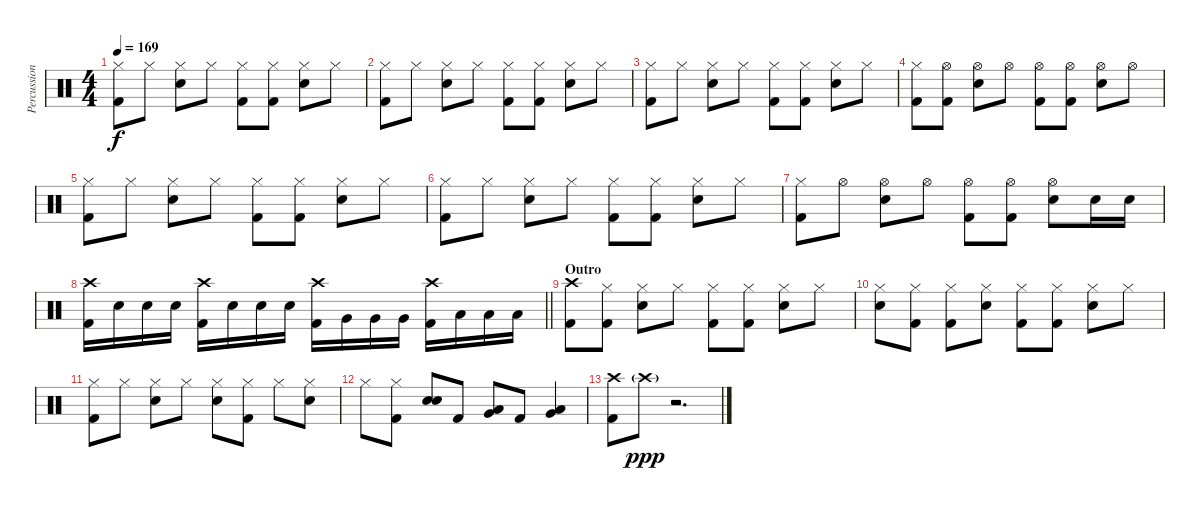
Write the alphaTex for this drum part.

\track ("Percussion" "Percussion") {instrument percussion}
\staff {score}
\articulation defaults
\ts (4 4)
\tempo 169
\clef neutral
\ks c
("Hi-Hat (closed)" "Kick (hit) 2").8{dy f} "Hi-Hat (closed)".8 ("Hi-Hat (closed)" "Electric Snare (hit)").8 "Hi-Hat (closed)".8 ("Hi-Hat (closed)" "Kick (hit) 2").8 ("Hi-Hat (closed)" "Kick (hit) 2").8 ("Hi-Hat (closed)" "Electric Snare (hit)").8 "Hi-Hat (closed)".8 |
("Hi-Hat (closed)" "Kick (hit) 2").8 "Hi-Hat (closed)".8 ("Hi-Hat (closed)" "Electric Snare (hit)").8 "Hi-Hat (closed)".8 ("Hi-Hat (closed)" "Kick (hit) 2").8 ("Hi-Hat (closed)" "Kick (hit) 2").8 ("Hi-Hat (closed)" "Electric Snare (hit)").8 "Hi-Hat (closed)".8 |
("Hi-Hat (closed)" "Kick (hit) 2").8 "Hi-Hat (closed)".8 ("Hi-Hat (closed)" "Electric Snare (hit)").8 "Hi-Hat (closed)".8 ("Hi-Hat (closed)" "Kick (hit) 2").8 ("Hi-Hat (closed)" "Kick (hit) 2").8 ("Hi-Hat (closed)" "Electric Snare (hit)").8 "Hi-Hat (closed)".8 |
("Hi-Hat (closed)" "Kick (hit) 2").8 ("Hi-Hat (open)" "Kick (hit) 2").8 ("Hi-Hat (open)" "Electric Snare (hit)").8 "Hi-Hat (open)".8 ("Hi-Hat (open)" "Kick (hit) 2").8 ("Hi-Hat (open)" "Kick (hit) 2").8 ("Hi-Hat (open)" "Electric Snare (hit)").8 "Hi-Hat (open)".8 |
("Hi-Hat (closed)" "Kick (hit) 2").8 "Hi-Hat (closed)".8 ("Hi-Hat (closed)" "Electric Snare (hit)").8 "Hi-Hat (closed)".8 ("Hi-Hat (closed)" "Kick (hit) 2").8 ("Hi-Hat (closed)" "Kick (hit) 2").8 ("Hi-Hat (closed)" "Electric Snare (hit)").8 "Hi-Hat (closed)".8 |
("Hi-Hat (closed)" "Kick (hit) 2").8 "Hi-Hat (closed)".8 ("Hi-Hat (closed)" "Electric Snare (hit)").8 "Hi-Hat (closed)".8 ("Hi-Hat (closed)" "Kick (hit) 2").8 ("Hi-Hat (closed)" "Kick (hit) 2").8 ("Hi-Hat (closed)" "Electric Snare (hit)").8 "Hi-Hat (closed)".8 |
("Hi-Hat (closed)" "Kick (hit) 2").8 "Hi-Hat (open)".8 ("Hi-Hat (open)" "Electric Snare (hit)").8 "Hi-Hat (open)".8 ("Hi-Hat (open)" "Kick (hit) 2").8 ("Hi-Hat (open)" "Kick (hit) 2").8 ("Hi-Hat (open)" "Electric Snare (hit)").8 "Electric Snare (hit)".16 "Electric Snare (hit)".16 |
\barLineRight lightlight
("Crash high (hit)" "Kick (hit) 2").16 "Electric Snare (hit)".16 "Electric Snare (hit)".16 "Electric Snare (hit)".16 ("Crash high (hit)" "Kick (hit) 2").16 "Electric Snare (hit)".16 "Electric Snare (hit)".16 "Electric Snare (hit)".16 ("Crash high (hit)" "Kick (hit) 2").16 "Very Low Tom (hit)".16 "Very Low Tom (hit)".16 "Very Low Tom (hit)".16 ("Crash high (hit)" "Kick (hit) 2").16 "Low Floor Tom (hit)".16 "Low Floor Tom (hit)".16 "Low Floor Tom (hit)".16 |
\section ("" "Outro")
("Crash high (hit)" "Kick (hit) 2").8 ("Hi-Hat (closed)" "Kick (hit) 2").8 ("Hi-Hat (closed)" "Electric Snare (hit)").8 "Hi-Hat (closed)".8 ("Hi-Hat (closed)" "Kick (hit) 2").8 ("Hi-Hat (closed)" "Kick (hit) 2").8 ("Hi-Hat (closed)" "Electric Snare (hit)").8 "Hi-Hat (closed)".8 |
("Hi-Hat (closed)" "Electric Snare (hit)").8 ("Hi-Hat (closed)" "Kick (hit) 2").8 ("Hi-Hat (closed)" "Kick (hit) 2").8 ("Hi-Hat (closed)" "Electric Snare (hit)").8 ("Hi-Hat (closed)" "Kick (hit) 2").8 ("Hi-Hat (closed)" "Kick (hit) 2").8 ("Hi-Hat (closed)" "Electric Snare (hit)").8 "Hi-Hat (closed)".8 |
("Hi-Hat (closed)" "Kick (hit) 2").8 "Hi-Hat (closed)".8 ("Hi-Hat (closed)" "Electric Snare (hit)").8 "Hi-Hat (closed)".8 ("Hi-Hat (closed)" "Electric Snare (hit)").8 ("Hi-Hat (closed)" "Kick (hit) 2").8 "Hi-Hat (closed)".8 ("Hi-Hat (closed)" "Electric Snare (hit)").8 |
"Hi-Hat (closed)".8 ("Hi-Hat (closed)" "Kick (hit) 2").8 ("Electric Snare (hit)" "Electric Snare (hit)").8 "Kick (hit) 2".8 ("Very Low Tom (hit)" "Low Tom (hit)").8 "Kick (hit) 2".8 ("Low Floor Tom (hit)" "Very Low Tom (hit)").4 |
("Crash high (hit)" "Kick (hit) 2").8 "Crash high (hit)"{g}.8{dy ppp} r.2{d}
